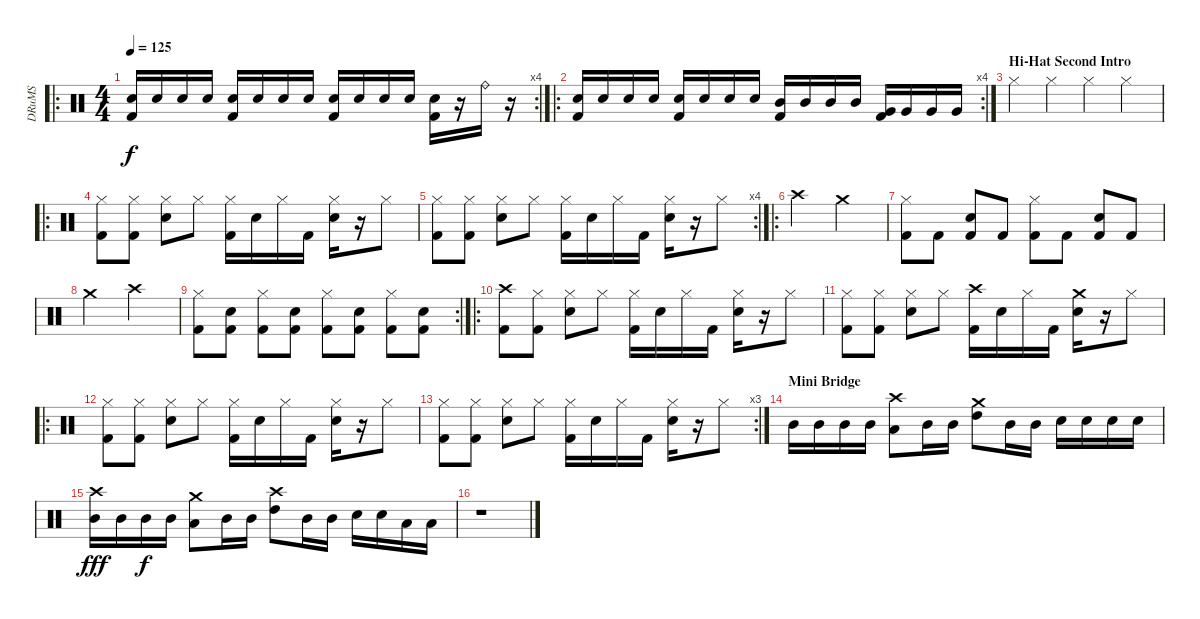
\track ("DRuMS" "DRuMS") {instrument percussion}
\staff {score}
\articulation defaults
\ro
\rc 4
\ts (4 4)
\tempo 125
\clef neutral
\ks c
("Snare (hit) 2" "Kick (hit) 2").16{dy f} "Snare (hit) 2".16 "Snare (hit) 2".16 "Snare (hit) 2".16 ("Snare (hit) 2" "Kick (hit) 2").16 "Snare (hit) 2".16 "Snare (hit) 2".16 "Snare (hit) 2".16 ("Snare (hit) 2" "Kick (hit) 2").16 "Snare (hit) 2".16 "Snare (hit) 2".16 "Snare (hit) 2".16 ("Snare (hit) 2" "Kick (hit) 2").16 r.16 "Ride (bell)".16 r.16 |
\ro
\rc 4
("Snare (hit) 2" "Kick (hit) 2").16 "Snare (hit) 2".16 "Snare (hit) 2".16 "Snare (hit) 2".16 ("Snare (hit) 2" "Kick (hit) 2").16 "Snare (hit) 2".16 "Snare (hit) 2".16 "Snare (hit) 2".16 ("Mid Tom (hit)" "Kick (hit) 2").16 "Mid Tom (hit)".16 "Mid Tom (hit)".16 "Mid Tom (hit)".16 ("Very Low Tom (hit)" "Kick (hit) 2").16 "Very Low Tom (hit)".16 "Very Low Tom (hit)".16 "Very Low Tom (hit)".16 |
\section ("" "Hi-Hat Second Intro")
"Hi-Hat (closed)".4 "Hi-Hat (closed)".4 "Hi-Hat (closed)".4 "Hi-Hat (closed)".4 |
\ro
("Hi-Hat (closed)" "Kick (hit) 2").8{volume 14} ("Hi-Hat (closed)" "Kick (hit) 2").8 ("Hi-Hat (closed)" "Snare (hit) 2").8 "Hi-Hat (closed)".8 ("Hi-Hat (closed)" "Kick (hit) 2").16 "Snare (hit) 2".16 "Hi-Hat (closed)".16 "Kick (hit) 2".16 ("Hi-Hat (closed)" "Snare (hit) 2").16 r.16 "Hi-Hat (closed)".8 |
\rc 4
("Hi-Hat (closed)" "Kick (hit) 2").8 ("Hi-Hat (closed)" "Kick (hit) 2").8 ("Hi-Hat (closed)" "Snare (hit) 2").8 "Hi-Hat (closed)".8 ("Hi-Hat (closed)" "Kick (hit) 2").16 "Snare (hit) 2".16 "Hi-Hat (closed)".16 "Kick (hit) 2".16 ("Hi-Hat (closed)" "Snare (hit) 2").16 r.16 "Hi-Hat (closed)".8 |
\ro "Crash high (hit)".2 "Crash medium (hit)".2
|
("Hi-Hat (closed)" "Kick (hit) 2").8 "Kick (hit) 2".8 ("Snare (hit) 2" "Kick (hit) 2").8 "Kick (hit) 2".8 ("Hi-Hat (closed)" "Kick (hit) 2").8 "Kick (hit) 2".8 ("Snare (hit) 2" "Kick (hit) 2").8 "Kick (hit) 2".8 |
"Crash medium (hit)".2 "Crash high (hit)".2 |
\rc 2
("Hi-Hat (closed)" "Kick (hit) 2").8 ("Snare (hit) 2" "Kick (hit) 2").8 ("Hi-Hat (closed)" "Kick (hit) 2").8 ("Snare (hit) 2" "Kick (hit) 2").8 ("Hi-Hat (closed)" "Kick (hit) 2").8 ("Snare (hit) 2" "Kick (hit) 2").8 ("Hi-Hat (closed)" "Kick (hit) 2").8 ("Snare (hit) 2" "Kick (hit) 2").8 |
\ro
("Crash high (hit)" "Kick (hit) 2").8 ("Hi-Hat (closed)" "Kick (hit) 2").8 ("Hi-Hat (closed)" "Snare (hit) 2").8 "Hi-Hat (closed)".8 ("Hi-Hat (closed)" "Kick (hit) 2").16 "Snare (hit) 2".16 "Hi-Hat (closed)".16 "Kick (hit) 2".16 ("Hi-Hat (closed)" "Snare (hit) 2").16 r.16 "Hi-Hat (closed)".8 |
("Hi-Hat (closed)" "Kick (hit) 2").8 ("Hi-Hat (closed)" "Kick (hit) 2").8 ("Hi-Hat (closed)" "Snare (hit) 2").8 "Hi-Hat (closed)".8 ("Crash high (hit)" "Kick (hit) 2").16 "Snare (hit) 2".16 "Hi-Hat (closed)".16 "Kick (hit) 2".16 ("Crash medium (hit)" "Snare (hit) 2").16 r.16 "Hi-Hat (closed)".8 |
\ro
("Hi-Hat (closed)" "Kick (hit) 2").8 ("Hi-Hat (closed)" "Kick (hit) 2").8 ("Hi-Hat (closed)" "Snare (hit) 2").8 "Hi-Hat (closed)".8 ("Hi-Hat (closed)" "Kick (hit) 2").16 "Snare (hit) 2".16 "Hi-Hat (closed)".16 "Kick (hit) 2".16 ("Hi-Hat (closed)" "Snare (hit) 2").16 r.16 "Hi-Hat (closed)".8 |
\rc 3
("Hi-Hat (closed)" "Kick (hit) 2").8 ("Hi-Hat (closed)" "Kick (hit) 2").8 ("Hi-Hat (closed)" "Snare (hit) 2").8 "Hi-Hat (closed)".8 ("Hi-Hat (closed)" "Kick (hit) 2").16 "Snare (hit) 2".16 "Hi-Hat (closed)".16 "Kick (hit) 2".16 ("Hi-Hat (closed)" "Snare (hit) 2").16 r.16 "Hi-Hat (closed)".8 |
\section ("" "Mini Bridge")
"Mid Tom (hit)".16 "Mid Tom (hit)".16 "Mid Tom (hit)".16 "Mid Tom (hit)".16 ("Crash high (hit)" "Low Tom (hit)").8 "Mid Tom (hit)".16 "Mid Tom (hit)".16 ("Crash medium (hit)" "High Tom (hit)").8 "Mid Tom (hit)".16 "Mid Tom (hit)".16 "Snare (hit) 2".16 "Snare (hit) 2".16 "Snare (hit) 2".16 "Snare (hit) 2".16 |
("Crash high (hit)" "Mid Tom (hit)").16{dy fff} "Mid Tom (hit)".16 "Mid Tom (hit)".16{dy f} "Mid Tom (hit)".16 ("Crash medium (hit)" "Low Tom (hit)").8 "Mid Tom (hit)".16 "Mid Tom (hit)".16 ("Crash high (hit)" "High Tom (hit)").8 "Mid Tom (hit)".16 "Mid Tom (hit)".16 "Snare (hit) 2".16 "Snare (hit) 2".16 "Low Tom (hit)".16 "Low Tom (hit)".16 |
r.1
